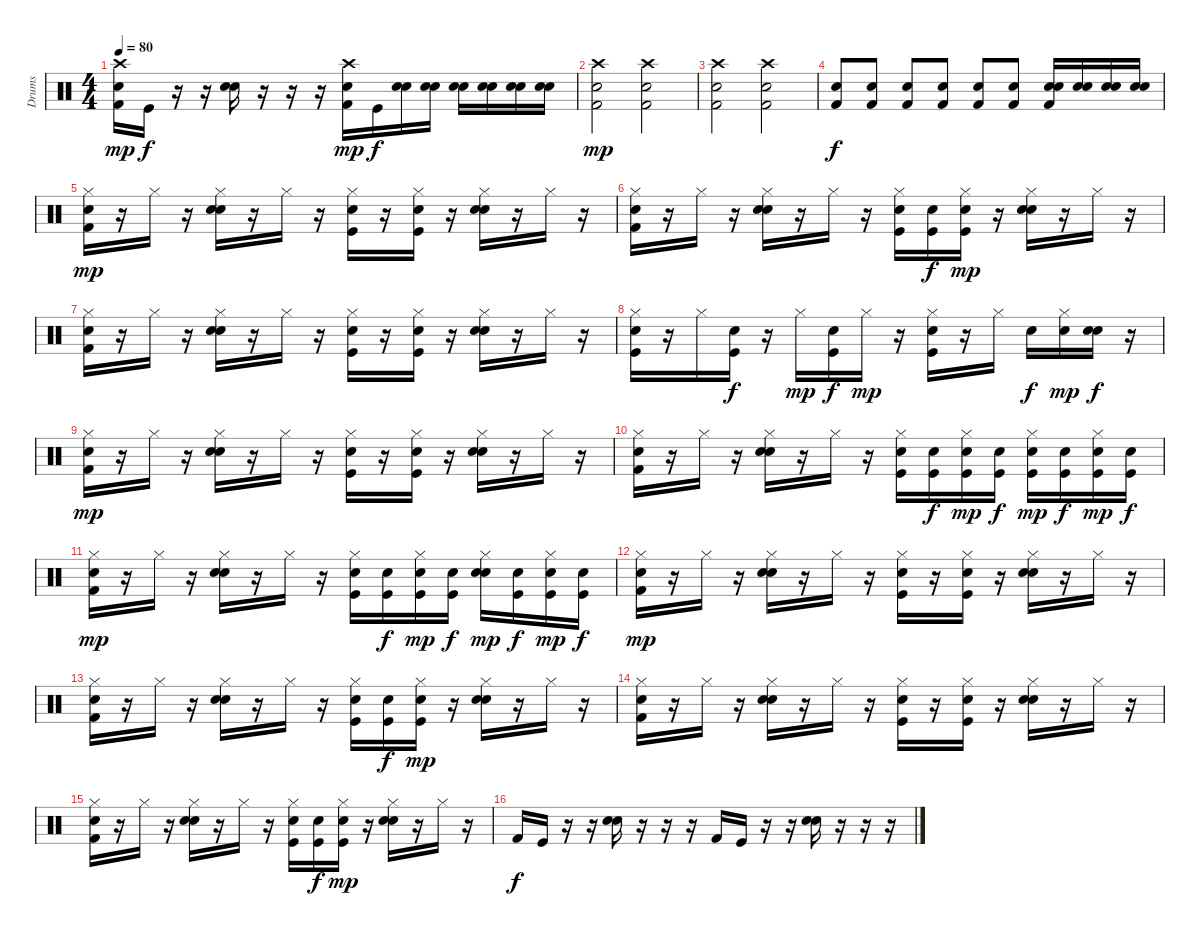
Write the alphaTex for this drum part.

\track ("Drums" "Drums") {instrument percussion}
\staff {score}
\articulation defaults
\ts (4 4)
\tempo 80
\clef neutral
\ks c
("Crash high (hit)" "Kick (hit) 2" "Snare (hit) 2").16{dy mp} "Kick (hit)".16{dy f} r.16 r.16 ("Electric Snare (hit)" "Electric Snare (hit)").16 r.16 r.16 r.16 ("Crash high (hit)" "Kick (hit) 2" "Snare (hit) 2").16{dy mp} "Kick (hit)".16{dy f} ("Electric Snare (hit)" "Electric Snare (hit)").16 ("Electric Snare (hit)" "Electric Snare (hit)").16 ("Electric Snare (hit)" "Electric Snare (hit)").16 ("Electric Snare (hit)" "Electric Snare (hit)").16 ("Electric Snare (hit)" "Electric Snare (hit)").16 ("Electric Snare (hit)" "Electric Snare (hit)").16 |
("Crash high (hit)" "Kick (hit) 2" "Snare (hit) 2").2{dy mp} ("Crash high (hit)" "Kick (hit) 2" "Snare (hit) 2").2 |
("Crash high (hit)" "Kick (hit) 2" "Snare (hit) 2").2 ("Crash high (hit)" "Kick (hit) 2" "Snare (hit) 2").2 |
("Kick (hit) 2" "Electric Snare (hit)").8{dy f} ("Kick (hit) 2" "Electric Snare (hit)").8 ("Kick (hit) 2" "Electric Snare (hit)").8 ("Kick (hit) 2" "Electric Snare (hit)").8 ("Kick (hit) 2" "Electric Snare (hit)").8 ("Kick (hit) 2" "Electric Snare (hit)").8 ("Kick (hit) 2" "Electric Snare (hit)" "Electric Snare (hit)").16 ("Snare (hit) 2" "Snare (hit) 2").16 ("Electric Snare (hit)" "Electric Snare (hit)").16 ("Snare (hit) 2" "Snare (hit) 2").16 |
("Hi-Hat (closed)" "Kick (hit) 2" "Snare (hit) 2").16{dy mp} r.16 "Hi-Hat (closed)".16 r.16 ("Hi-Hat (closed)" "Electric Snare (hit)" "Electric Snare (hit)").16 r.16 "Hi-Hat (closed)".16 r.16 ("Hi-Hat (closed)" "Kick (hit)" "Snare (hit) 2").16 r.16 ("Hi-Hat (closed)" "Kick (hit)" "Snare (hit) 2").16 r.16 ("Hi-Hat (closed)" "Electric Snare (hit)" "Electric Snare (hit)").16 r.16 "Hi-Hat (closed)".16 r.16 |
("Hi-Hat (closed)" "Kick (hit) 2" "Snare (hit) 2").16 r.16 "Hi-Hat (closed)".16 r.16 ("Hi-Hat (closed)" "Electric Snare (hit)" "Electric Snare (hit)").16 r.16 "Hi-Hat (closed)".16 r.16 ("Hi-Hat (closed)" "Kick (hit)" "Snare (hit) 2").16 ("Kick (hit)" "Snare (hit) 2").16{dy f} ("Hi-Hat (closed)" "Kick (hit)" "Snare (hit) 2").16{dy mp} r.16 ("Hi-Hat (closed)" "Electric Snare (hit)" "Electric Snare (hit)").16 r.16 "Hi-Hat (closed)".16 r.16 |
("Hi-Hat (closed)" "Kick (hit) 2" "Snare (hit) 2").16 r.16 "Hi-Hat (closed)".16 r.16 ("Hi-Hat (closed)" "Electric Snare (hit)" "Electric Snare (hit)").16 r.16 "Hi-Hat (closed)".16 r.16 ("Hi-Hat (closed)" "Kick (hit)" "Snare (hit) 2").16 r.16 ("Hi-Hat (closed)" "Kick (hit)" "Snare (hit) 2").16 r.16 ("Hi-Hat (closed)" "Electric Snare (hit)" "Electric Snare (hit)").16 r.16 "Hi-Hat (closed)".16 r.16 |
("Hi-Hat (closed)" "Electric Snare (hit)" "Kick (hit)").16 r.16 "Hi-Hat (closed)".16 ("Electric Snare (hit)" "Kick (hit)").16{dy f} r.16 "Hi-Hat (closed)".16{dy mp} ("Electric Snare (hit)" "Kick (hit)").16{dy f} "Hi-Hat (closed)".16{dy mp} r.16 ("Hi-Hat (closed)" "Electric Snare (hit)" "Kick (hit)").16 r.16 "Hi-Hat (closed)".16 "Snare (hit) 2".16{dy f} ("Hi-Hat (closed)" "Snare (hit) 2").16{dy mp} ("Electric Snare (hit)" "Electric Snare (hit)").16{dy f} r.16 |
("Hi-Hat (closed)" "Kick (hit) 2" "Snare (hit) 2").16{dy mp} r.16 "Hi-Hat (closed)".16 r.16 ("Hi-Hat (closed)" "Electric Snare (hit)" "Electric Snare (hit)").16 r.16 "Hi-Hat (closed)".16 r.16 ("Hi-Hat (closed)" "Kick (hit)" "Snare (hit) 2").16 r.16 ("Hi-Hat (closed)" "Kick (hit)" "Snare (hit) 2").16 r.16 ("Hi-Hat (closed)" "Electric Snare (hit)" "Electric Snare (hit)").16 r.16 "Hi-Hat (closed)".16 r.16 |
("Hi-Hat (closed)" "Kick (hit) 2" "Snare (hit) 2").16 r.16 "Hi-Hat (closed)".16 r.16 ("Hi-Hat (closed)" "Electric Snare (hit)" "Electric Snare (hit)").16 r.16 "Hi-Hat (closed)".16 r.16 ("Hi-Hat (closed)" "Kick (hit)" "Snare (hit) 2").16 ("Kick (hit)" "Snare (hit) 2").16{dy f} ("Hi-Hat (closed)" "Kick (hit)" "Snare (hit) 2").16{dy mp} ("Kick (hit)" "Snare (hit) 2").16{dy f} ("Hi-Hat (closed)" "Kick (hit)" "Snare (hit) 2").16{dy mp} ("Kick (hit)" "Snare (hit) 2").16{dy f} ("Hi-Hat (closed)" "Kick (hit)" "Snare (hit) 2").16{dy mp} ("Kick (hit)" "Snare (hit) 2").16{dy f} |
("Hi-Hat (closed)" "Kick (hit) 2" "Snare (hit) 2").16{dy mp} r.16 "Hi-Hat (closed)".16 r.16 ("Hi-Hat (closed)" "Electric Snare (hit)" "Electric Snare (hit)").16 r.16 "Hi-Hat (closed)".16 r.16 ("Hi-Hat (closed)" "Kick (hit)" "Electric Snare (hit)").16 ("Kick (hit)" "Electric Snare (hit)").16{dy f} ("Hi-Hat (closed)" "Kick (hit)" "Electric Snare (hit)").16{dy mp} ("Kick (hit)" "Electric Snare (hit)").16{dy f} ("Hi-Hat (closed)" "Electric Snare (hit)" "Electric Snare (hit)").16{dy mp} ("Kick (hit)" "Electric Snare (hit)").16{dy f} ("Hi-Hat (closed)" "Kick (hit)" "Electric Snare (hit)").16{dy mp} ("Kick (hit)" "Electric Snare (hit)").16{dy f} |
("Hi-Hat (closed)" "Kick (hit) 2" "Snare (hit) 2").16{dy mp} r.16 "Hi-Hat (closed)".16 r.16 ("Hi-Hat (closed)" "Electric Snare (hit)" "Electric Snare (hit)").16 r.16 "Hi-Hat (closed)".16 r.16 ("Hi-Hat (closed)" "Kick (hit)" "Snare (hit) 2").16 r.16 ("Hi-Hat (closed)" "Kick (hit)" "Snare (hit) 2").16 r.16 ("Hi-Hat (closed)" "Electric Snare (hit)" "Electric Snare (hit)").16 r.16 "Hi-Hat (closed)".16 r.16 |
("Hi-Hat (closed)" "Kick (hit) 2" "Snare (hit) 2").16 r.16 "Hi-Hat (closed)".16 r.16 ("Hi-Hat (closed)" "Electric Snare (hit)" "Electric Snare (hit)").16 r.16 "Hi-Hat (closed)".16 r.16 ("Hi-Hat (closed)" "Kick (hit)" "Snare (hit) 2").16 ("Kick (hit)" "Snare (hit) 2").16{dy f} ("Hi-Hat (closed)" "Kick (hit)" "Snare (hit) 2").16{dy mp} r.16 ("Hi-Hat (closed)" "Electric Snare (hit)" "Electric Snare (hit)").16 r.16 "Hi-Hat (closed)".16 r.16 |
("Hi-Hat (closed)" "Kick (hit) 2" "Snare (hit) 2").16 r.16 "Hi-Hat (closed)".16 r.16 ("Hi-Hat (closed)" "Electric Snare (hit)" "Electric Snare (hit)").16 r.16 "Hi-Hat (closed)".16 r.16 ("Hi-Hat (closed)" "Kick (hit)" "Snare (hit) 2").16 r.16 ("Hi-Hat (closed)" "Kick (hit)" "Snare (hit) 2").16 r.16 ("Hi-Hat (closed)" "Electric Snare (hit)" "Electric Snare (hit)").16 r.16 "Hi-Hat (closed)".16 r.16 |
("Hi-Hat (closed)" "Kick (hit) 2" "Snare (hit) 2").16 r.16 "Hi-Hat (closed)".16 r.16 ("Hi-Hat (closed)" "Electric Snare (hit)" "Electric Snare (hit)").16 r.16 "Hi-Hat (closed)".16 r.16 ("Hi-Hat (closed)" "Kick (hit)" "Snare (hit) 2").16 ("Kick (hit)" "Snare (hit) 2").16{dy f} ("Hi-Hat (closed)" "Kick (hit)" "Snare (hit) 2").16{dy mp} r.16 ("Hi-Hat (closed)" "Electric Snare (hit)" "Electric Snare (hit)").16 r.16 "Hi-Hat (closed)".16 r.16 |
"Kick (hit) 2".16{dy f} "Kick (hit)".16 r.16 r.16 ("Electric Snare (hit)" "Electric Snare (hit)").16 r.16 r.16 r.16 "Kick (hit) 2".16 "Kick (hit)".16 r.16 r.16 ("Electric Snare (hit)" "Electric Snare (hit)").16 r.16 r.16 r.16
